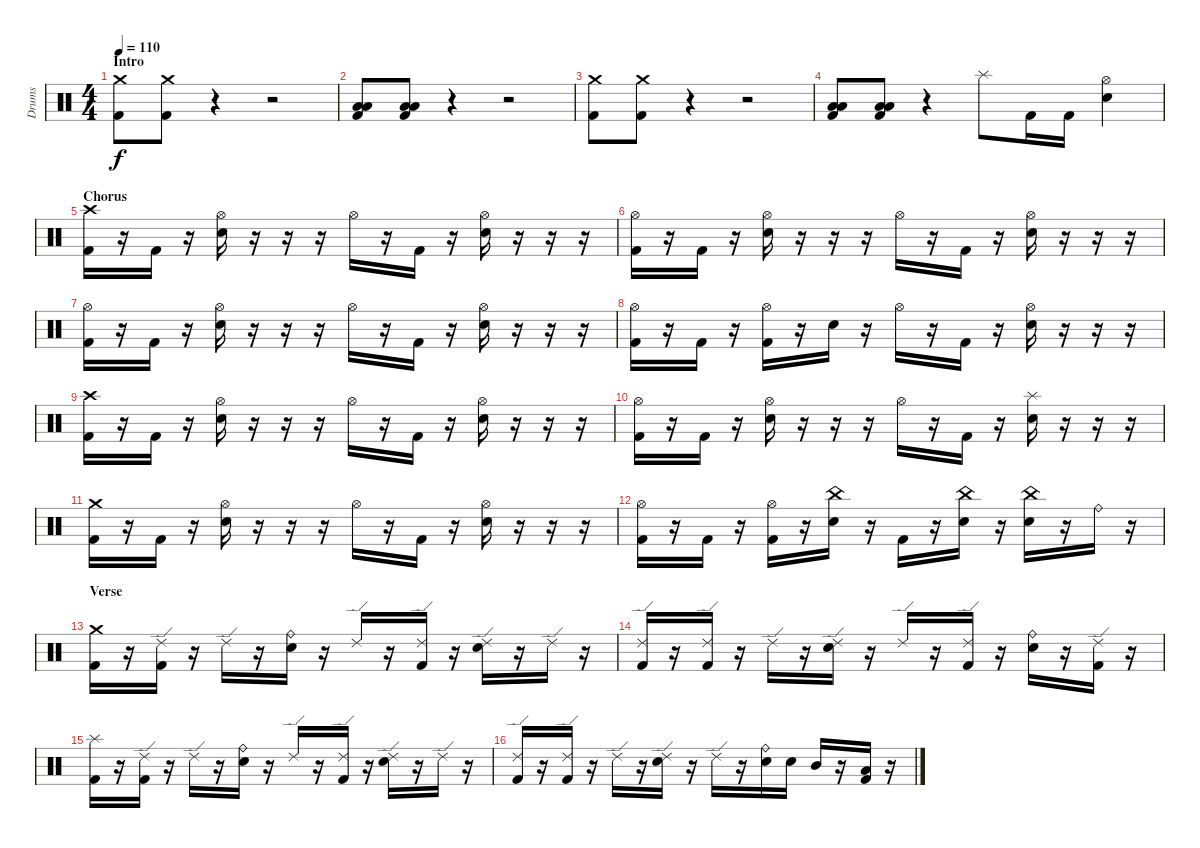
\track ("Drums" "Drums") {instrument percussion}
\staff {score}
\articulation defaults
\ts (4 4)
\section ("" "Intro")
\tempo 110
\clef neutral
\ks c
("Crash medium (hit)" "Kick (hit) 2").8{dy f} ("Crash medium (hit)" "Kick (hit) 2").8 r.4 r.2 |
("Low Tom (hit)" "Low Floor Tom (hit)" "Kick (hit) 2").8 ("Low Tom (hit)" "Low Floor Tom (hit)" "Kick (hit) 2").8 r.4 r.2 |
("Crash medium (hit)" "Kick (hit) 2").8 ("Crash medium (hit)" "Kick (hit) 2").8 r.4 r.2 |
("Low Tom (hit)" "Low Floor Tom (hit)" "Kick (hit) 2").8 ("Low Tom (hit)" "Low Floor Tom (hit)" "Kick (hit) 2").8 r.4 "Splash (hit)".8 "Kick (hit) 2".16 "Kick (hit) 2".16 ("Hi-Hat (open)" "Electric Snare (hit)").4 |
\section ("" "Chorus")
("Crash high (hit)" "Kick (hit) 2").16 r.16 "Kick (hit) 2".16 r.16 ("Hi-Hat (open)" "Electric Snare (hit)").16 r.16 r.16 r.16 "Hi-Hat (open)".16 r.16 "Kick (hit) 2".16 r.16 ("Hi-Hat (open)" "Electric Snare (hit)").16 r.16 r.16 r.16 |
("Hi-Hat (open)" "Kick (hit) 2").16 r.16 "Kick (hit) 2".16 r.16 ("Hi-Hat (open)" "Electric Snare (hit)").16 r.16 r.16 r.16 "Hi-Hat (open)".16 r.16 "Kick (hit) 2".16 r.16 ("Hi-Hat (open)" "Electric Snare (hit)").16 r.16 r.16 r.16 |
("Hi-Hat (open)" "Kick (hit) 2").16 r.16 "Kick (hit) 2".16 r.16 ("Hi-Hat (open)" "Electric Snare (hit)").16 r.16 r.16 r.16 "Hi-Hat (open)".16 r.16 "Kick (hit) 2".16 r.16 ("Hi-Hat (open)" "Electric Snare (hit)").16 r.16 r.16 r.16 |
("Hi-Hat (open)" "Kick (hit) 2").16 r.16 "Kick (hit) 2".16 r.16 ("Hi-Hat (open)" "Kick (hit) 2").16 r.16 "Electric Snare (hit)".16 r.16 "Hi-Hat (open)".16 r.16 "Kick (hit) 2".16 r.16 ("Hi-Hat (open)" "Electric Snare (hit)").16 r.16 r.16 r.16 |
("Crash high (hit)" "Kick (hit) 2").16 r.16 "Kick (hit) 2".16 r.16 ("Hi-Hat (open)" "Electric Snare (hit)").16 r.16 r.16 r.16 "Hi-Hat (open)".16 r.16 "Kick (hit) 2".16 r.16 ("Hi-Hat (open)" "Electric Snare (hit)").16 r.16 r.16 r.16 |
("Hi-Hat (open)" "Kick (hit) 2").16 r.16 "Kick (hit) 2".16 r.16 ("Hi-Hat (open)" "Electric Snare (hit)").16 r.16 r.16 r.16 "Hi-Hat (open)".16 r.16 "Kick (hit) 2".16 r.16 ("Splash (hit)" "Electric Snare (hit)").16 r.16 r.16 r.16 |
("Crash medium (hit)" "Kick (hit) 2").16 r.16 "Kick (hit) 2".16 r.16 ("Hi-Hat (open)" "Electric Snare (hit)").16 r.16 r.16 r.16 "Hi-Hat (open)".16 r.16 "Kick (hit) 2".16 r.16 ("Hi-Hat (open)" "Electric Snare (hit)").16 r.16 r.16 r.16 |
("Hi-Hat (open)" "Kick (hit) 2").16 r.16 "Kick (hit) 2".16 r.16 ("Hi-Hat (open)" "Kick (hit) 2").16 r.16 ("China (hit)" "Electric Snare (hit)").16 r.16 "Kick (hit) 2".16 r.16 ("China (hit)" "Electric Snare (hit)").16 r.16 ("China (hit)" "Electric Snare (hit)").16 r.16 "Ride (bell)".16 r.16 |
\section ("" "Verse")
("Crash medium (hit)" "Kick (hit) 2").16 r.16 ("Ride (edge) 2" "Kick (hit) 2").16 r.16 "Ride (edge) 2".16 r.16 ("Ride (bell)" "Electric Snare (hit)").16 r.16 "Ride (edge) 2".16 r.16 ("Ride (edge) 2" "Kick (hit) 2").16 r.16 ("Ride (edge) 2" "Electric Snare (hit)").16 r.16 "Ride (edge) 2".16 r.16 |
("Ride (edge) 2" "Kick (hit) 2").16 r.16 ("Ride (edge) 2" "Kick (hit) 2").16 r.16 "Ride (edge) 2".16 r.16 ("Ride (edge) 2" "Electric Snare (hit)").16 r.16 "Ride (edge) 2".16 r.16 ("Ride (edge) 2" "Kick (hit) 2").16 r.16 ("Ride (bell)" "Electric Snare (hit)").16 r.16 ("Ride (edge) 2" "Kick (hit) 2").16 r.16 |
("Splash (hit)" "Kick (hit) 2").16 r.16 ("Ride (edge) 2" "Kick (hit) 2").16 r.16 "Ride (edge) 2".16 r.16 ("Ride (bell)" "Electric Snare (hit)").16 r.16 "Ride (edge) 2".16 r.16 ("Ride (edge) 2" "Kick (hit) 2").16 r.16 ("Ride (edge) 2" "Electric Snare (hit)").16 r.16 "Ride (edge) 2".16 r.16 |
("Ride (edge) 2" "Kick (hit) 2").16 r.16 ("Ride (edge) 2" "Kick (hit) 2").16 r.16 "Ride (edge) 2".16 r.16 ("Ride (edge) 2" "Electric Snare (hit)").16 r.16 "Ride (edge) 2".16 r.16 ("Ride (bell)" "Electric Snare (hit)").16 "Electric Snare (hit)".16 "Mid Tom (hit)".16 r.16 ("Low Tom (hit)" "Kick (hit) 2").16 r.16
